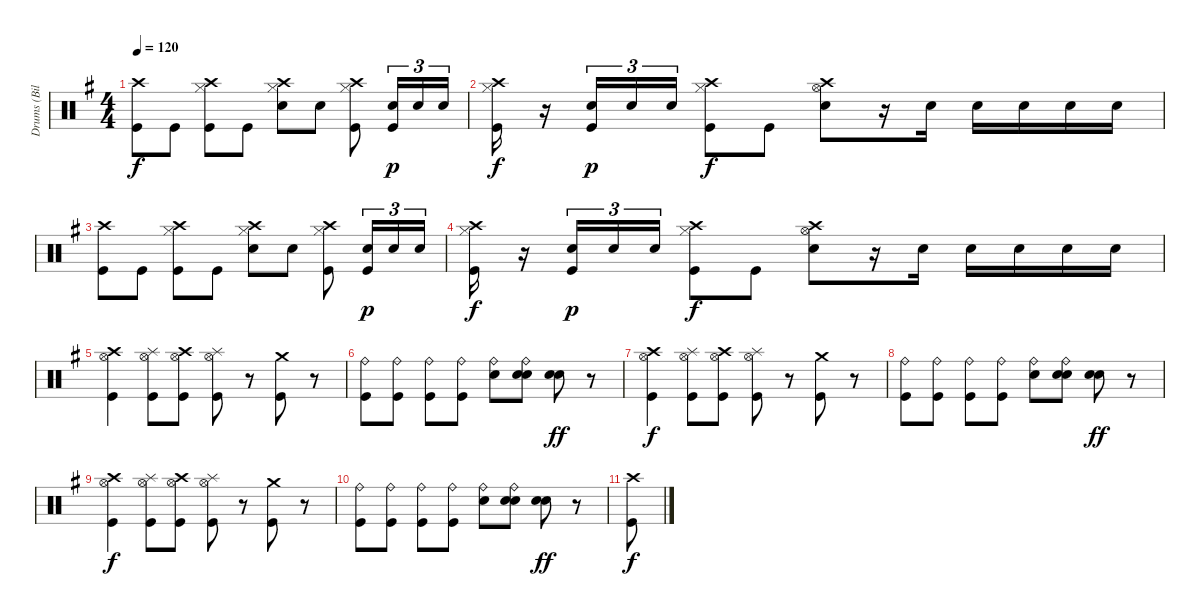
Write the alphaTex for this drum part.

\track ("Drums (Bill Ward)" "Drums (Bil") {instrument percussion}
\staff {score}
\articulation defaults
\ts (4 4)
\tempo 120
\clef neutral
\ks g
("Crash high (hit)" "Kick (hit)").8{dy f} "Kick (hit)".8 ("Crash high (hit)" "Hi-Hat (closed)" "Kick (hit)").8 "Kick (hit)".8 ("Crash high (hit)" "Hi-Hat (closed)" "Electric Snare (hit)").8 "Electric Snare (hit)".8 ("Crash high (hit)" "Hi-Hat (closed)" "Kick (hit)").8 ("Electric Snare (hit)" "Kick (hit)").16{tu (3 2) dy p} "Electric Snare (hit)".16{tu (3 2)} "Electric Snare (hit)".16{tu (3 2)} |
("Crash high (hit)" "Hi-Hat (closed)" "Kick (hit)").16{dy f} r.16 ("Electric Snare (hit)" "Kick (hit)").16{tu (3 2) dy p} "Electric Snare (hit)".16{tu (3 2)} "Electric Snare (hit)".16{tu (3 2)} ("Crash high (hit)" "Hi-Hat (closed)" "Kick (hit)").8{dy f} "Kick (hit)".8 ("Crash high (hit)" "Hi-Hat (open)" "Electric Snare (hit)").8 r.16 "Electric Snare (hit)".16 "Electric Snare (hit)".16 "Electric Snare (hit)".16 "Electric Snare (hit)".16 "Electric Snare (hit)".16 |
("Crash high (hit)" "Kick (hit)").8 "Kick (hit)".8 ("Crash high (hit)" "Hi-Hat (closed)" "Kick (hit)").8 "Kick (hit)".8 ("Crash high (hit)" "Hi-Hat (closed)" "Electric Snare (hit)").8 "Electric Snare (hit)".8 ("Crash high (hit)" "Hi-Hat (closed)" "Kick (hit)").8 ("Electric Snare (hit)" "Kick (hit)").16{tu (3 2) dy p} "Electric Snare (hit)".16{tu (3 2)} "Electric Snare (hit)".16{tu (3 2)} |
("Crash high (hit)" "Hi-Hat (closed)" "Kick (hit)").16{dy f} r.16 ("Electric Snare (hit)" "Kick (hit)").16{tu (3 2) dy p} "Electric Snare (hit)".16{tu (3 2)} "Electric Snare (hit)".16{tu (3 2)} ("Crash high (hit)" "Hi-Hat (closed)" "Kick (hit)").8{dy f} "Kick (hit)".8 ("Crash high (hit)" "Hi-Hat (open)" "Electric Snare (hit)").8 r.16 "Electric Snare (hit)".16 "Electric Snare (hit)".16 "Electric Snare (hit)".16 "Electric Snare (hit)".16 "Electric Snare (hit)".16 |
("Crash high (hit)" "Hi-Hat (open)" "Kick (hit)").4 ("Splash (hit)" "Hi-Hat (open)" "Kick (hit)").8 ("Crash high (hit)" "Hi-Hat (open)" "Kick (hit)").8 ("Splash (hit)" "Hi-Hat (open)" "Kick (hit)").8 r.8 ("Crash medium (hit)" "Kick (hit)").8 r.8 |
("Ride (bell)" "Kick (hit)").8 ("Ride (bell)" "Kick (hit)").8 ("Ride (bell)" "Kick (hit)").8 ("Ride (bell)" "Kick (hit)").8 ("Ride (bell)" "Electric Snare (hit)").8 ("Ride (bell)" "Electric Snare (hit)" "Electric Snare (hit)").8 ("Electric Snare (hit)" "Electric Snare (hit)").8{dy ff} r.8 |
("Crash high (hit)" "Hi-Hat (open)" "Kick (hit)").4{dy f} ("Splash (hit)" "Hi-Hat (open)" "Kick (hit)").8 ("Crash high (hit)" "Hi-Hat (open)" "Kick (hit)").8 ("Splash (hit)" "Hi-Hat (open)" "Kick (hit)").8 r.8 ("Crash medium (hit)" "Kick (hit)").8 r.8 |
("Ride (bell)" "Kick (hit)").8 ("Ride (bell)" "Kick (hit)").8 ("Ride (bell)" "Kick (hit)").8 ("Ride (bell)" "Kick (hit)").8 ("Ride (bell)" "Electric Snare (hit)").8 ("Ride (bell)" "Electric Snare (hit)" "Electric Snare (hit)").8 ("Electric Snare (hit)" "Electric Snare (hit)").8{dy ff} r.8 |
("Crash high (hit)" "Hi-Hat (open)" "Kick (hit)").4{dy f} ("Splash (hit)" "Hi-Hat (open)" "Kick (hit)").8 ("Crash high (hit)" "Hi-Hat (open)" "Kick (hit)").8 ("Splash (hit)" "Hi-Hat (open)" "Kick (hit)").8 r.8 ("Crash medium (hit)" "Kick (hit)").8 r.8 |
("Ride (bell)" "Kick (hit)").8 ("Ride (bell)" "Kick (hit)").8 ("Ride (bell)" "Kick (hit)").8 ("Ride (bell)" "Kick (hit)").8 ("Ride (bell)" "Electric Snare (hit)").8 ("Ride (bell)" "Electric Snare (hit)" "Electric Snare (hit)").8 ("Electric Snare (hit)" "Electric Snare (hit)").8{dy ff} r.8 |
("Crash high (hit)" "Kick (hit)").8{dy f}
